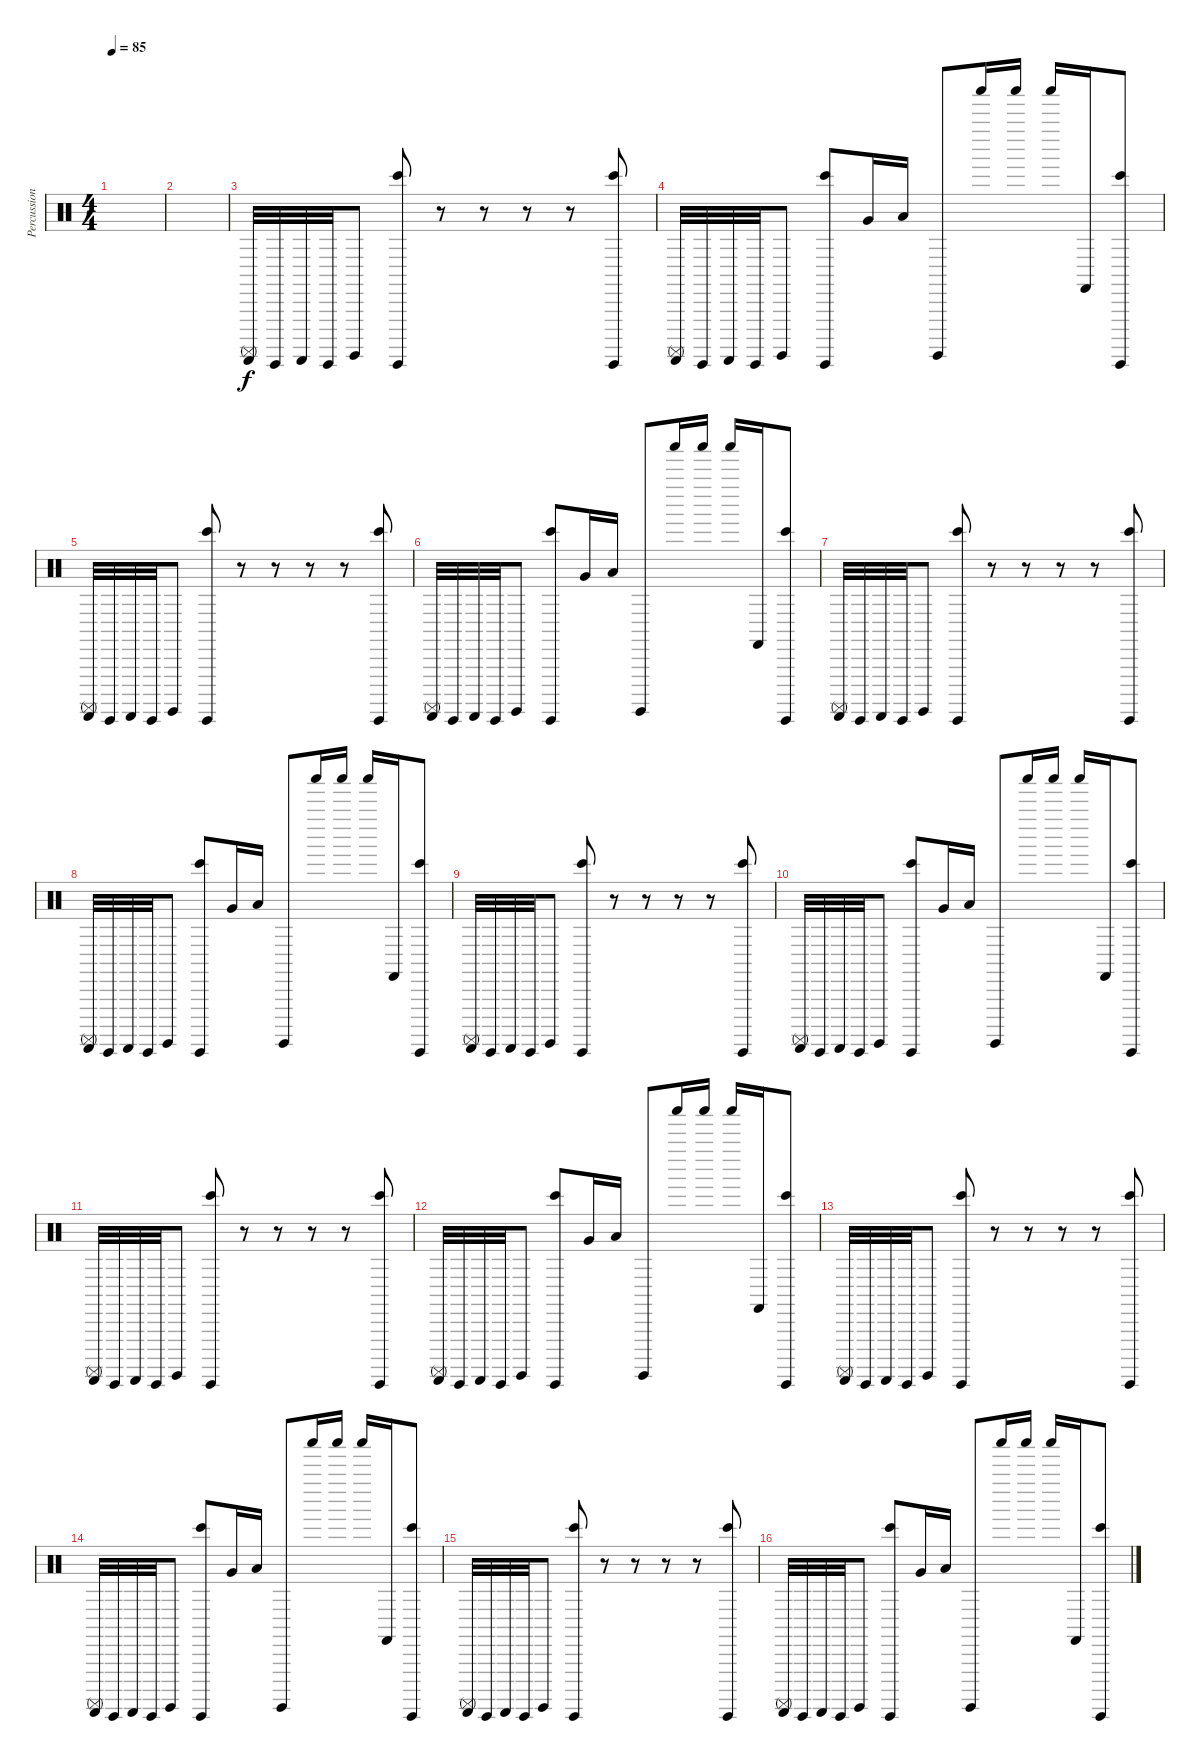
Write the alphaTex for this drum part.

\track ("Percussion" "Percussion") {instrument percussion}
\staff {score}
\articulation defaults
\ts (4 4)
\tempo 85
\clef neutral
\ks c
|
|
("Guiro (scrap-return)" "Surdo (mute)").32 "Guiro (hit)".32 "Guiro (scrap-return)".32 "Guiro (hit)".32 "Surdo (hit)".8 ("Bongo High (hit)" "Guiro (hit)").8 r.8 r.8 r.8 r.8 ("Bongo High (hit)" "Guiro (hit)").8 |
("Guiro (scrap-return)" "Surdo (mute)").32 "Guiro (hit)".32 "Guiro (scrap-return)".32 "Guiro (hit)".32 "Surdo (hit)".8 ("Bongo High (hit)" "Guiro (hit)").8 "Very Low Tom (hit)".16 "Low Floor Tom (hit)".16 "Surdo (hit)".8 "Shaker (hit)".16 "Shaker (hit)".16 "Shaker (hit)".16 "Castanets (hit)".16 ("Bongo High (hit)" "Guiro (hit)").8 |
("Guiro (scrap-return)" "Surdo (mute)").32 "Guiro (hit)".32 "Guiro (scrap-return)".32 "Guiro (hit)".32 "Surdo (hit)".8 ("Bongo High (hit)" "Guiro (hit)").8 r.8 r.8 r.8 r.8 ("Bongo High (hit)" "Guiro (hit)").8 |
("Guiro (scrap-return)" "Surdo (mute)").32 "Guiro (hit)".32 "Guiro (scrap-return)".32 "Guiro (hit)".32 "Surdo (hit)".8 ("Bongo High (hit)" "Guiro (hit)").8 "Very Low Tom (hit)".16 "Low Floor Tom (hit)".16 "Surdo (hit)".8 "Shaker (hit)".16 "Shaker (hit)".16 "Shaker (hit)".16 "Castanets (hit)".16 ("Bongo High (hit)" "Guiro (hit)").8 |
("Guiro (scrap-return)" "Surdo (mute)").32 "Guiro (hit)".32 "Guiro (scrap-return)".32 "Guiro (hit)".32 "Surdo (hit)".8 ("Bongo High (hit)" "Guiro (hit)").8 r.8 r.8 r.8 r.8 ("Bongo High (hit)" "Guiro (hit)").8 |
("Guiro (scrap-return)" "Surdo (mute)").32 "Guiro (hit)".32 "Guiro (scrap-return)".32 "Guiro (hit)".32 "Surdo (hit)".8 ("Bongo High (hit)" "Guiro (hit)").8 "Very Low Tom (hit)".16 "Low Floor Tom (hit)".16 "Surdo (hit)".8 "Shaker (hit)".16 "Shaker (hit)".16 "Shaker (hit)".16 "Castanets (hit)".16 ("Bongo High (hit)" "Guiro (hit)").8 |
("Guiro (scrap-return)" "Surdo (mute)").32 "Guiro (hit)".32 "Guiro (scrap-return)".32 "Guiro (hit)".32 "Surdo (hit)".8 ("Bongo High (hit)" "Guiro (hit)").8 r.8 r.8 r.8 r.8 ("Bongo High (hit)" "Guiro (hit)").8 |
("Guiro (scrap-return)" "Surdo (mute)").32 "Guiro (hit)".32 "Guiro (scrap-return)".32 "Guiro (hit)".32 "Surdo (hit)".8 ("Bongo High (hit)" "Guiro (hit)").8 "Very Low Tom (hit)".16 "Low Floor Tom (hit)".16 "Surdo (hit)".8 "Shaker (hit)".16 "Shaker (hit)".16 "Shaker (hit)".16 "Castanets (hit)".16 ("Bongo High (hit)" "Guiro (hit)").8 |
("Guiro (scrap-return)" "Surdo (mute)").32 "Guiro (hit)".32 "Guiro (scrap-return)".32 "Guiro (hit)".32 "Surdo (hit)".8 ("Bongo High (hit)" "Guiro (hit)").8 r.8 r.8 r.8 r.8 ("Bongo High (hit)" "Guiro (hit)").8 |
("Guiro (scrap-return)" "Surdo (mute)").32 "Guiro (hit)".32 "Guiro (scrap-return)".32 "Guiro (hit)".32 "Surdo (hit)".8 ("Bongo High (hit)" "Guiro (hit)").8 "Very Low Tom (hit)".16 "Low Floor Tom (hit)".16 "Surdo (hit)".8 "Shaker (hit)".16 "Shaker (hit)".16 "Shaker (hit)".16 "Castanets (hit)".16 ("Bongo High (hit)" "Guiro (hit)").8 |
("Guiro (scrap-return)" "Surdo (mute)").32 "Guiro (hit)".32 "Guiro (scrap-return)".32 "Guiro (hit)".32 "Surdo (hit)".8 ("Bongo High (hit)" "Guiro (hit)").8 r.8 r.8 r.8 r.8 ("Bongo High (hit)" "Guiro (hit)").8 |
("Guiro (scrap-return)" "Surdo (mute)").32 "Guiro (hit)".32 "Guiro (scrap-return)".32 "Guiro (hit)".32 "Surdo (hit)".8 ("Bongo High (hit)" "Guiro (hit)").8 "Very Low Tom (hit)".16 "Low Floor Tom (hit)".16 "Surdo (hit)".8 "Shaker (hit)".16 "Shaker (hit)".16 "Shaker (hit)".16 "Castanets (hit)".16 ("Bongo High (hit)" "Guiro (hit)").8 |
("Guiro (scrap-return)" "Surdo (mute)").32 "Guiro (hit)".32 "Guiro (scrap-return)".32 "Guiro (hit)".32 "Surdo (hit)".8 ("Bongo High (hit)" "Guiro (hit)").8 r.8 r.8 r.8 r.8 ("Bongo High (hit)" "Guiro (hit)").8 |
("Guiro (scrap-return)" "Surdo (mute)").32 "Guiro (hit)".32 "Guiro (scrap-return)".32 "Guiro (hit)".32 "Surdo (hit)".8 ("Bongo High (hit)" "Guiro (hit)").8 "Very Low Tom (hit)".16 "Low Floor Tom (hit)".16 "Surdo (hit)".8 "Shaker (hit)".16 "Shaker (hit)".16 "Shaker (hit)".16 "Castanets (hit)".16 ("Bongo High (hit)" "Guiro (hit)").8
